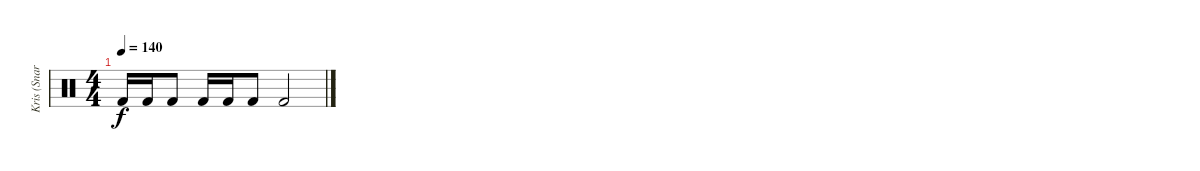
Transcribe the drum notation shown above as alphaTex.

\track ("Kris (Snares & Toms)" "Kris (Snar") {instrument percussion}
\staff {score}
\articulation defaults
\ts (4 4)
\tempo 140
\clef neutral
\ks c "Kick (hit) 2".16{dy f} "Kick (hit) 2".16 "Kick (hit) 2".8 "Kick (hit) 2".16 "Kick (hit) 2".16 "Kick (hit) 2".8 "Kick (hit) 2".2
